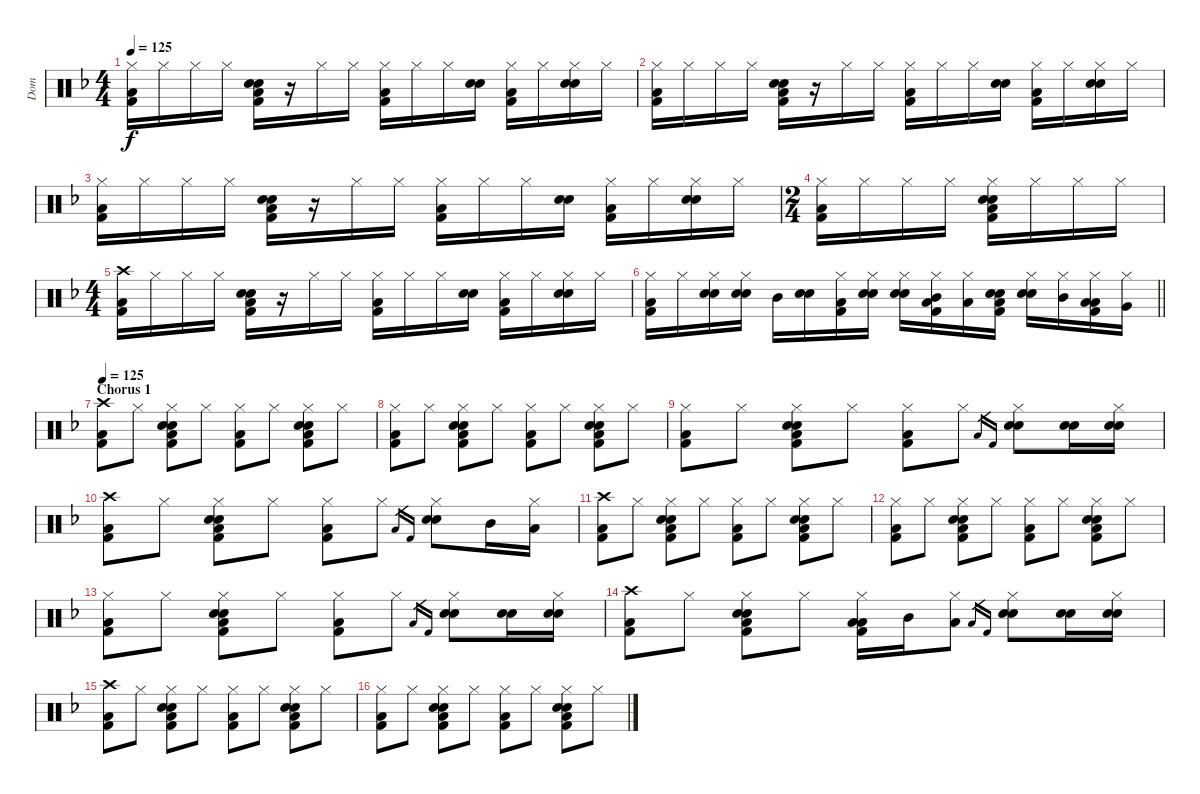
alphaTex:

\track ("Dom" "Dom") {instrument percussion}
\staff {score}
\articulation defaults
\ts (4 4)
\tempo 125
\clef neutral
\ks f
("Hi-Hat (closed)" "Low Floor Tom (hit)" "Kick (hit) 2").16{dy f} "Hi-Hat (closed)".16 "Hi-Hat (closed)".16 "Hi-Hat (closed)".16 ("Snare (hit) 2" "Electric Snare (hit)" "Low Floor Tom (hit)" "Kick (hit) 2").16 r.16 "Hi-Hat (closed)".16 "Hi-Hat (closed)".16 ("Hi-Hat (closed)" "Low Floor Tom (hit)" "Kick (hit) 2").16 "Hi-Hat (closed)".16 "Hi-Hat (closed)".16 ("Snare (hit) 2" "Electric Snare (hit)").16 ("Hi-Hat (closed)" "Low Floor Tom (hit)" "Kick (hit) 2").16 "Hi-Hat (closed)".16 ("Hi-Hat (closed)" "Snare (hit) 2" "Electric Snare (hit)").16 "Hi-Hat (closed)".16 |
("Hi-Hat (closed)" "Low Floor Tom (hit)" "Kick (hit) 2").16 "Hi-Hat (closed)".16 "Hi-Hat (closed)".16 "Hi-Hat (closed)".16 ("Snare (hit) 2" "Electric Snare (hit)" "Low Floor Tom (hit)" "Kick (hit) 2").16 r.16 "Hi-Hat (closed)".16 "Hi-Hat (closed)".16 ("Hi-Hat (closed)" "Low Floor Tom (hit)" "Kick (hit) 2").16 "Hi-Hat (closed)".16 "Hi-Hat (closed)".16 ("Snare (hit) 2" "Electric Snare (hit)").16 ("Hi-Hat (closed)" "Low Floor Tom (hit)" "Kick (hit) 2").16 "Hi-Hat (closed)".16 ("Hi-Hat (closed)" "Snare (hit) 2" "Electric Snare (hit)").16 "Hi-Hat (closed)".16 |
("Hi-Hat (closed)" "Low Floor Tom (hit)" "Kick (hit) 2").16 "Hi-Hat (closed)".16 "Hi-Hat (closed)".16 "Hi-Hat (closed)".16 ("Snare (hit) 2" "Electric Snare (hit)" "Low Floor Tom (hit)" "Kick (hit) 2").16 r.16 "Hi-Hat (closed)".16 "Hi-Hat (closed)".16 ("Hi-Hat (closed)" "Low Floor Tom (hit)" "Kick (hit) 2").16 "Hi-Hat (closed)".16 "Hi-Hat (closed)".16 ("Snare (hit) 2" "Electric Snare (hit)").16 ("Hi-Hat (closed)" "Low Floor Tom (hit)" "Kick (hit) 2").16 "Hi-Hat (closed)".16 ("Hi-Hat (closed)" "Snare (hit) 2" "Electric Snare (hit)").16 "Hi-Hat (closed)".16 |
\ts (2 4)
("Hi-Hat (closed)" "Low Floor Tom (hit)" "Kick (hit) 2").16 "Hi-Hat (closed)".16 "Hi-Hat (closed)".16 "Hi-Hat (closed)".16 ("Hi-Hat (closed)" "Snare (hit) 2" "Electric Snare (hit)" "Low Floor Tom (hit)" "Kick (hit) 2").16 "Hi-Hat (closed)".16 "Hi-Hat (closed)".16 "Hi-Hat (closed)".16 |
\ts (4 4)
("Crash high (hit)" "Low Floor Tom (hit)" "Kick (hit) 2").16 "Hi-Hat (closed)".16 "Hi-Hat (closed)".16 "Hi-Hat (closed)".16 ("Snare (hit) 2" "Electric Snare (hit)" "Low Floor Tom (hit)" "Kick (hit) 2").16 r.16 "Hi-Hat (closed)".16 "Hi-Hat (closed)".16 ("Hi-Hat (closed)" "Low Floor Tom (hit)" "Kick (hit) 2").16 "Hi-Hat (closed)".16 "Hi-Hat (closed)".16 ("Snare (hit) 2" "Electric Snare (hit)").16 ("Hi-Hat (closed)" "Low Floor Tom (hit)" "Kick (hit) 2").16 "Hi-Hat (closed)".16 ("Hi-Hat (closed)" "Snare (hit) 2" "Electric Snare (hit)").16 "Hi-Hat (closed)".16 |
\barLineRight lightlight
("Hi-Hat (closed)" "Low Floor Tom (hit)" "Kick (hit) 2").16 "Hi-Hat (closed)".16 ("Hi-Hat (closed)" "Snare (hit) 2" "Electric Snare (hit)").16 ("Hi-Hat (closed)" "Snare (hit) 2" "Electric Snare (hit)").16 "Mid Tom (hit)".16 ("Snare (hit) 2" "Electric Snare (hit)").16 ("Hi-Hat (closed)" "Low Floor Tom (hit)" "Kick (hit) 2").16 ("Hi-Hat (closed)" "Snare (hit) 2" "Electric Snare (hit)").16 ("Hi-Hat (closed)" "Snare (hit) 2" "Electric Snare (hit)").16 ("Hi-Hat (closed)" "Mid Tom (hit)" "Low Floor Tom (hit)" "Kick (hit) 2").16 ("Hi-Hat (closed)" "Low Tom (hit)").16 ("Snare (hit) 2" "Electric Snare (hit)" "Low Floor Tom (hit)" "Kick (hit) 2").16 ("Hi-Hat (closed)" "Snare (hit) 2" "Electric Snare (hit)").16 ("Hi-Hat (closed)" "Mid Tom (hit)").16 ("Hi-Hat (closed)" "Low Tom (hit)" "Low Floor Tom (hit)" "Kick (hit) 2").16 ("Hi-Hat (closed)" "Very Low Tom (hit)").16 |
\section ("" "Chorus 1")
\tempo 125
("Crash high (hit)" "Low Floor Tom (hit)" "Kick (hit) 2").8 "Hi-Hat (closed)".8 ("Hi-Hat (closed)" "Snare (hit) 2" "Electric Snare (hit)" "Low Floor Tom (hit)" "Kick (hit) 2").8 "Hi-Hat (closed)".8 ("Hi-Hat (closed)" "Low Floor Tom (hit)" "Kick (hit) 2").8 "Hi-Hat (closed)".8 ("Hi-Hat (closed)" "Snare (hit) 2" "Electric Snare (hit)" "Low Floor Tom (hit)" "Kick (hit) 2").8 "Hi-Hat (closed)".8 |
("Hi-Hat (closed)" "Low Floor Tom (hit)" "Kick (hit) 2").8 "Hi-Hat (closed)".8 ("Hi-Hat (closed)" "Snare (hit) 2" "Electric Snare (hit)" "Low Floor Tom (hit)" "Kick (hit) 2").8 "Hi-Hat (closed)".8 ("Hi-Hat (closed)" "Low Floor Tom (hit)" "Kick (hit) 2").8 "Hi-Hat (closed)".8 ("Hi-Hat (closed)" "Snare (hit) 2" "Electric Snare (hit)" "Low Floor Tom (hit)" "Kick (hit) 2").8 "Hi-Hat (closed)".8 |
("Hi-Hat (closed)" "Low Floor Tom (hit)" "Kick (hit) 2").8 "Hi-Hat (closed)".8 ("Hi-Hat (closed)" "Snare (hit) 2" "Electric Snare (hit)" "Low Floor Tom (hit)" "Kick (hit) 2").8 "Hi-Hat (closed)".8 ("Hi-Hat (closed)" "Low Floor Tom (hit)" "Kick (hit) 2").8 "Hi-Hat (closed)".8 "Low Floor Tom (hit)".16{gr} "Kick (hit) 2".16{gr} ("Hi-Hat (closed)" "Snare (hit) 2" "Electric Snare (hit)").8 ("Snare (hit) 2" "Electric Snare (hit)").16 ("Hi-Hat (closed)" "Snare (hit) 2" "Electric Snare (hit)").16 |
("Crash high (hit)" "Low Floor Tom (hit)" "Kick (hit) 2").8 "Hi-Hat (closed)".8 ("Hi-Hat (closed)" "Snare (hit) 2" "Electric Snare (hit)" "Low Floor Tom (hit)" "Kick (hit) 2").8 "Hi-Hat (closed)".8 ("Hi-Hat (closed)" "Low Floor Tom (hit)" "Kick (hit) 2").8 "Hi-Hat (closed)".8 "Low Floor Tom (hit)".16{gr} "Kick (hit) 2".16{gr} ("Hi-Hat (closed)" "Snare (hit) 2" "Electric Snare (hit)").8 "Mid Tom (hit)".16 ("Hi-Hat (closed)" "Low Tom (hit)").16 |
("Crash high (hit)" "Low Floor Tom (hit)" "Kick (hit) 2").8 "Hi-Hat (closed)".8 ("Hi-Hat (closed)" "Snare (hit) 2" "Electric Snare (hit)" "Low Floor Tom (hit)" "Kick (hit) 2").8 "Hi-Hat (closed)".8 ("Hi-Hat (closed)" "Low Floor Tom (hit)" "Kick (hit) 2").8 "Hi-Hat (closed)".8 ("Hi-Hat (closed)" "Snare (hit) 2" "Electric Snare (hit)" "Low Floor Tom (hit)" "Kick (hit) 2").8 "Hi-Hat (closed)".8 |
("Hi-Hat (closed)" "Low Floor Tom (hit)" "Kick (hit) 2").8 "Hi-Hat (closed)".8 ("Hi-Hat (closed)" "Snare (hit) 2" "Electric Snare (hit)" "Low Floor Tom (hit)" "Kick (hit) 2").8 "Hi-Hat (closed)".8 ("Hi-Hat (closed)" "Low Floor Tom (hit)" "Kick (hit) 2").8 "Hi-Hat (closed)".8 ("Hi-Hat (closed)" "Snare (hit) 2" "Electric Snare (hit)" "Low Floor Tom (hit)" "Kick (hit) 2").8 "Hi-Hat (closed)".8 |
("Hi-Hat (closed)" "Low Floor Tom (hit)" "Kick (hit) 2").8 "Hi-Hat (closed)".8 ("Hi-Hat (closed)" "Snare (hit) 2" "Electric Snare (hit)" "Low Floor Tom (hit)" "Kick (hit) 2").8 "Hi-Hat (closed)".8 ("Hi-Hat (closed)" "Low Floor Tom (hit)" "Kick (hit) 2").8 "Hi-Hat (closed)".8 "Low Floor Tom (hit)".16{gr} "Kick (hit) 2".16{gr} ("Hi-Hat (closed)" "Snare (hit) 2" "Electric Snare (hit)").8 ("Snare (hit) 2" "Electric Snare (hit)").16 ("Hi-Hat (closed)" "Snare (hit) 2" "Electric Snare (hit)").16 |
("Crash high (hit)" "Low Floor Tom (hit)" "Kick (hit) 2").8 "Hi-Hat (closed)".8 ("Hi-Hat (closed)" "Snare (hit) 2" "Electric Snare (hit)" "Low Floor Tom (hit)" "Kick (hit) 2").8 "Hi-Hat (closed)".8 ("Hi-Hat (closed)" "Low Tom (hit)" "Low Floor Tom (hit)" "Kick (hit) 2").16 "Mid Tom (hit)".16 ("Hi-Hat (closed)" "Low Tom (hit)").8 "Low Floor Tom (hit)".16{gr} "Kick (hit) 2".16{gr} ("Hi-Hat (closed)" "Snare (hit) 2" "Electric Snare (hit)").8 ("Snare (hit) 2" "Electric Snare (hit)").16 ("Hi-Hat (closed)" "Snare (hit) 2" "Electric Snare (hit)").16 |
("Crash high (hit)" "Low Floor Tom (hit)" "Kick (hit) 2").8 "Hi-Hat (closed)".8 ("Hi-Hat (closed)" "Snare (hit) 2" "Electric Snare (hit)" "Low Floor Tom (hit)" "Kick (hit) 2").8 "Hi-Hat (closed)".8 ("Hi-Hat (closed)" "Low Floor Tom (hit)" "Kick (hit) 2").8 "Hi-Hat (closed)".8 ("Hi-Hat (closed)" "Snare (hit) 2" "Electric Snare (hit)" "Low Floor Tom (hit)" "Kick (hit) 2").8 "Hi-Hat (closed)".8 |
("Hi-Hat (closed)" "Low Floor Tom (hit)" "Kick (hit) 2").8 "Hi-Hat (closed)".8 ("Hi-Hat (closed)" "Snare (hit) 2" "Electric Snare (hit)" "Low Floor Tom (hit)" "Kick (hit) 2").8 "Hi-Hat (closed)".8 ("Hi-Hat (closed)" "Low Floor Tom (hit)" "Kick (hit) 2").8 "Hi-Hat (closed)".8 ("Hi-Hat (closed)" "Snare (hit) 2" "Electric Snare (hit)" "Low Floor Tom (hit)" "Kick (hit) 2").8 "Hi-Hat (closed)".8
